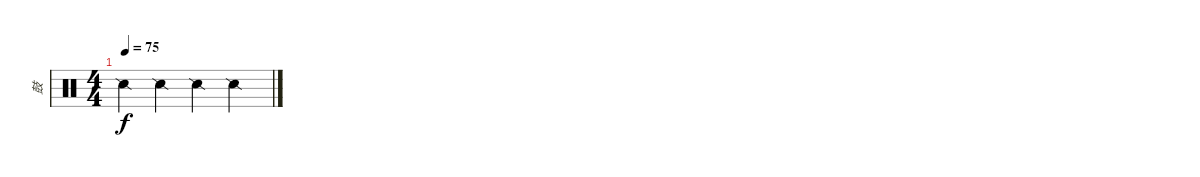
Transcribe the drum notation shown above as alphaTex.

\track ("鼓" "鼓") {instrument percussion}
\staff {score}
\articulation defaults
\ts (4 4)
\tempo 75
\clef neutral
\ks c "Snare (side stick) 2".4{dy f} "Snare (side stick) 2".4 "Snare (side stick) 2".4 "Snare (side stick) 2".4
